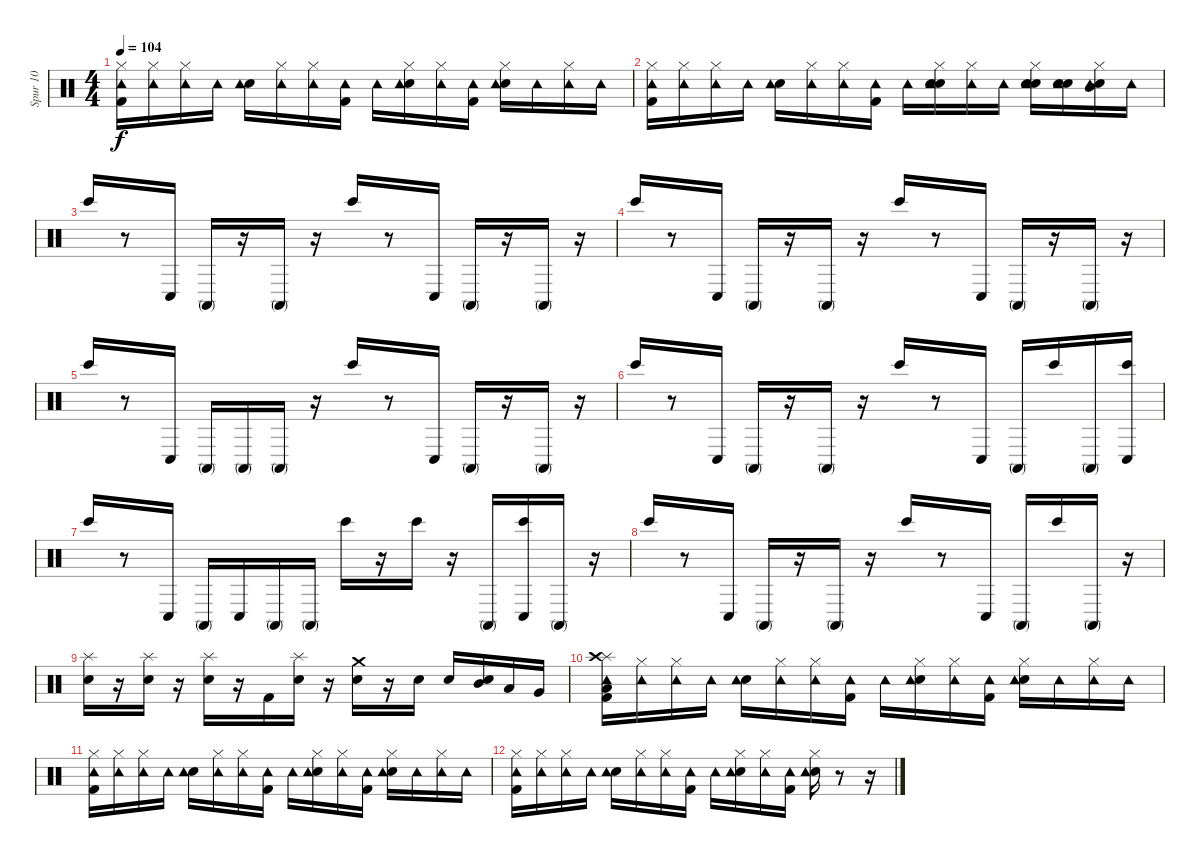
\track ("Spur 10" "Spur 10") {instrument percussion}
\staff {score}
\articulation defaults
\ts (4 4)
\tempo 104
\clef neutral
\ks c
("Hi-Hat (closed)" "Kick (hit) 2" "Tambourine (hit)").16{dy f} ("Hi-Hat (closed)" "Tambourine (hit)").16 ("Hi-Hat (closed)" "Tambourine (hit)").16 "Tambourine (hit)".16 ("Electric Snare (hit)" "Tambourine (hit)").16 ("Hi-Hat (closed)" "Tambourine (hit)").16 ("Hi-Hat (closed)" "Tambourine (hit)").16 ("Kick (hit) 2" "Tambourine (hit)").16 "Tambourine (hit)".16 ("Hi-Hat (closed)" "Electric Snare (hit)" "Tambourine (hit)").16 ("Hi-Hat (closed)" "Tambourine (hit)").16 ("Kick (hit) 2" "Tambourine (hit)").16 ("Hi-Hat (closed)" "Electric Snare (hit)" "Tambourine (hit)").16 "Tambourine (hit)".16 ("Hi-Hat (closed)" "Tambourine (hit)").16 "Tambourine (hit)".16 |
("Hi-Hat (closed)" "Kick (hit) 2" "Tambourine (hit)").16 ("Hi-Hat (closed)" "Tambourine (hit)").16 ("Hi-Hat (closed)" "Tambourine (hit)").16 "Tambourine (hit)".16 ("Electric Snare (hit)" "Tambourine (hit)").16 ("Hi-Hat (closed)" "Tambourine (hit)").16 ("Hi-Hat (closed)" "Tambourine (hit)").16 ("Kick (hit) 2" "Tambourine (hit)").16 "Tambourine (hit)".16 ("Snare (hit) 2" "Hi-Hat (closed)" "Electric Snare (hit)" "Tambourine (hit)").16 ("Hi-Hat (closed)" "Tambourine (hit)").16 "Tambourine (hit)".16 ("Snare (hit) 2" "Hi-Hat (closed)" "Electric Snare (hit)" "Tambourine (hit)").16 ("Snare (hit) 2" "Electric Snare (hit)" "Tambourine (hit)").16 ("Electric Snare (hit)" "Mid Tom (hit)" "Hi-Hat (closed)" "Tambourine (hit)").16 "Tambourine (hit)".16 |
"Bongo High (hit)".16 r.8 "Conga low (hit)".16 "Conga high (mute)".16 r.16 "Conga high (mute)".16 r.16 "Bongo High (hit)".16 r.8 "Conga low (hit)".16 "Conga high (mute)".16 r.16 "Conga high (mute)".16 r.16 |
"Bongo High (hit)".16 r.8 "Conga low (hit)".16 "Conga high (mute)".16 r.16 "Conga high (mute)".16 r.16 "Bongo High (hit)".16 r.8 "Conga low (hit)".16 "Conga high (mute)".16 r.16 "Conga high (mute)".16 r.16 |
"Bongo High (hit)".16 r.8 "Conga low (hit)".16 "Conga high (mute)".16 "Conga high (mute)".16 "Conga high (mute)".16 r.16 "Bongo High (hit)".16 r.8 "Conga low (hit)".16 "Conga high (mute)".16 r.16 "Conga high (mute)".16 r.16 |
"Bongo High (hit)".16 r.8 "Conga low (hit)".16 "Conga high (mute)".16 r.16 "Conga high (mute)".16 r.16 "Bongo High (hit)".16 r.8 "Conga low (hit)".16 "Conga high (mute)".16 "Bongo High (hit)".16 "Conga high (mute)".16 ("Conga low (hit)" "Bongo High (hit)").16 |
"Bongo High (hit)".16 r.8 "Conga low (hit)".16 "Conga high (mute)".16 "Conga low (hit)".16 "Conga high (mute)".16 "Conga high (mute)".16 "Bongo High (hit)".16 r.16 "Bongo High (hit)".16 r.16 "Conga high (mute)".16 ("Conga low (hit)" "Bongo High (hit)").16 "Conga high (mute)".16 r.16 |
"Bongo High (hit)".16 r.8 "Conga low (hit)".16 "Conga high (mute)".16 r.16 "Conga high (mute)".16 r.16 "Bongo High (hit)".16 r.8 "Conga low (hit)".16 "Conga high (mute)".16 "Bongo High (hit)".16 "Conga high (mute)".16 r.16 |
("Splash (hit)" "Electric Snare (hit)").16 r.16 ("Splash (hit)" "Electric Snare (hit)").16 r.16 ("Splash (hit)" "Electric Snare (hit)").16 r.16 "Kick (hit) 2".16 ("Splash (hit)" "Electric Snare (hit)").16 r.16 ("Crash medium (hit)" "Electric Snare (hit)").16 r.16 "Electric Snare (hit)".16 "Electric Snare (hit)".16 ("Electric Snare (hit)" "Mid Tom (hit)").16 "Low Tom (hit)".16 "Very Low Tom (hit)".16 |
("Splash (hit)" "Tambourine (hit)" "Kick (hit) 2" "Low Tom (hit)" "Crash high (hit)").16 ("Hi-Hat (closed)" "Tambourine (hit)").16 ("Hi-Hat (closed)" "Tambourine (hit)").16 "Tambourine (hit)".16 ("Electric Snare (hit)" "Tambourine (hit)").16 ("Hi-Hat (closed)" "Tambourine (hit)").16 ("Hi-Hat (closed)" "Tambourine (hit)").16 ("Kick (hit) 2" "Tambourine (hit)").16 "Tambourine (hit)".16 ("Hi-Hat (closed)" "Electric Snare (hit)" "Tambourine (hit)").16 ("Hi-Hat (closed)" "Tambourine (hit)").16 ("Kick (hit) 2" "Tambourine (hit)").16 ("Hi-Hat (closed)" "Electric Snare (hit)" "Tambourine (hit)").16 "Tambourine (hit)".16 ("Hi-Hat (closed)" "Tambourine (hit)").16 "Tambourine (hit)".16 |
("Hi-Hat (closed)" "Tambourine (hit)" "Kick (hit) 2").16 ("Hi-Hat (closed)" "Tambourine (hit)").16 ("Hi-Hat (closed)" "Tambourine (hit)").16 "Tambourine (hit)".16 ("Electric Snare (hit)" "Tambourine (hit)").16 ("Hi-Hat (closed)" "Tambourine (hit)").16 ("Hi-Hat (closed)" "Tambourine (hit)").16 ("Kick (hit) 2" "Tambourine (hit)").16 "Tambourine (hit)".16 ("Hi-Hat (closed)" "Electric Snare (hit)" "Tambourine (hit)").16 ("Hi-Hat (closed)" "Tambourine (hit)").16 ("Kick (hit) 2" "Tambourine (hit)").16 ("Hi-Hat (closed)" "Electric Snare (hit)" "Tambourine (hit)").16 "Tambourine (hit)".16 ("Hi-Hat (closed)" "Tambourine (hit)").16 "Tambourine (hit)".16 |
("Hi-Hat (closed)" "Kick (hit) 2" "Tambourine (hit)").16 ("Hi-Hat (closed)" "Tambourine (hit)").16 ("Hi-Hat (closed)" "Tambourine (hit)").16 "Tambourine (hit)".16 ("Electric Snare (hit)" "Tambourine (hit)").16 ("Hi-Hat (closed)" "Tambourine (hit)").16 ("Hi-Hat (closed)" "Tambourine (hit)").16 ("Kick (hit) 2" "Tambourine (hit)").16 "Tambourine (hit)".16 ("Hi-Hat (closed)" "Electric Snare (hit)" "Tambourine (hit)").16 ("Hi-Hat (closed)" "Tambourine (hit)").16 ("Kick (hit) 2" "Tambourine (hit)").16 ("Hi-Hat (closed)" "Electric Snare (hit)" "Tambourine (hit)").16 r.8 r.16
